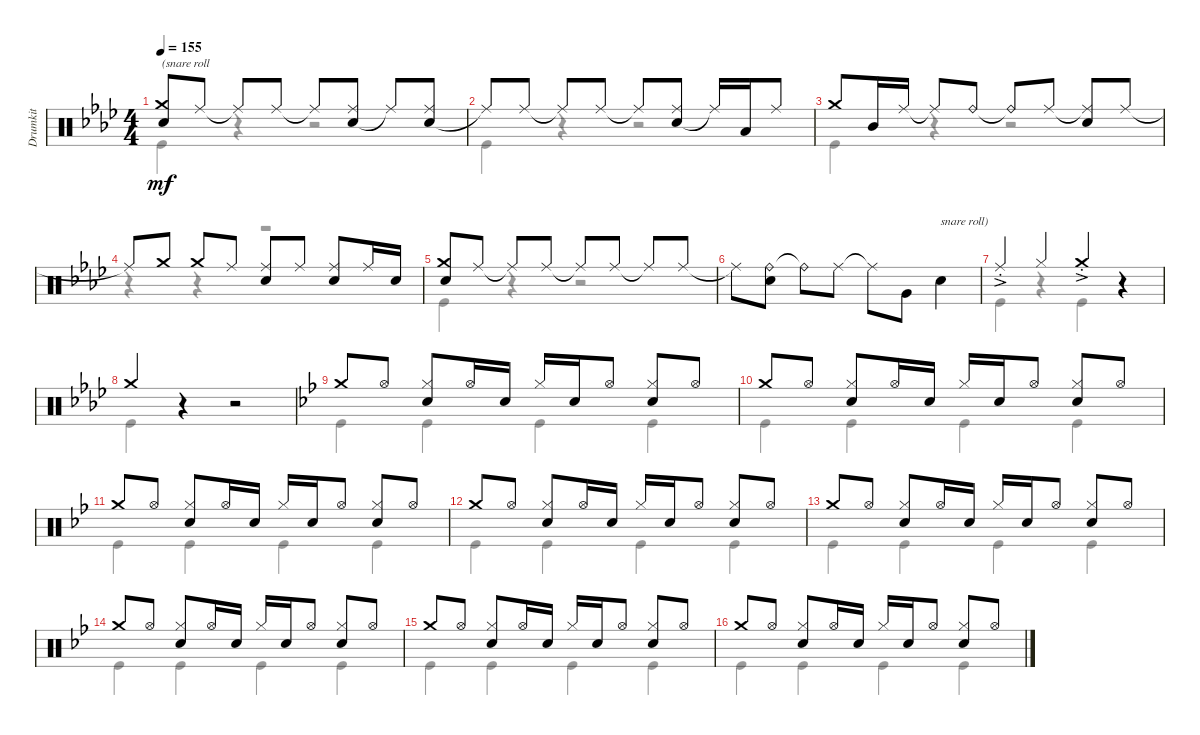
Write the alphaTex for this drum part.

\track ("Drumkit" "Drumkit") {instrument percussion}
\staff {score}
\articulation defaults
\voice
\ts (4 4)
\section ("" "")
\tempo 155
\clef neutral
\ks ab
("Crash medium (hit)" "Snare (hit) 2").8{txt "(snare roll" dy mf} "Ride (middle)".8 "Ride (middle)"{t}.8 "Ride (middle)".8 "Ride (middle)"{t}.8 ("Snare (hit) 2" "Ride (middle)").8 "Ride (middle)"{t}.8 ("Snare (hit) 2" "Ride (middle)").8 |
"Ride (middle)"{t}.8 "Ride (middle)".8 "Ride (middle)"{t}.8 "Ride (middle)".8 "Ride (middle)"{t}.8 ("Snare (hit) 2" "Ride (middle)").8 "Ride (middle)"{t}.16 "Low Tom (hit)".16 "Ride (middle)".8 |
"Crash medium (hit)".8 "Mid Tom (hit)".16 "Ride (middle)".16 "Ride (middle)"{t}.8 "Ride (bell)".8 "Ride (bell)"{t}.8 "Ride (middle)".8 ("Ride (middle)"{t} "Snare (hit) 2").8 "Ride (middle)".8 |
"Ride (middle)"{t}.8 "Crash medium (hit)".8 "Crash medium (hit)".8 "Ride (middle)".8 ("Ride (middle)" "Snare (hit) 2").8 "Ride (middle)".8 ("Ride (middle)" "Snare (hit) 2").8 "Ride (middle)".16 "Snare (hit) 2".16 |
("Crash medium (hit)" "Snare (hit) 2").8 "Ride (middle)".8 "Ride (middle)"{t}.8 "Ride (middle)".8 "Ride (middle)"{t}.8 "Ride (middle)".8 "Ride (middle)"{t}.8 "Ride (middle)".8 |
"Ride (middle)"{t}.8 ("Ride (bell)" "Snare (hit) 2").8 "Ride (bell)"{t}.8 "Ride (middle)".8 "Ride (middle)"{t}.8 "Very Low Tom (hit)".8 "Snare (hit) 2".4{txt "snare roll)"} |
"Ride (middle)"{ac st}.4 "Hi-Hat (closed)".4 "Crash medium (hit)"{ac st}.4 r.4 |
"Crash medium (hit)".4 r.4 r.2 |
\ks bb "Crash medium (hit)".8 "Hi-Hat (open)".8
("Hi-Hat (closed)" "Snare (hit) 2").8 "Hi-Hat (open)".16 "Snare (hit) 2".16 "Hi-Hat (closed)".16 "Snare (hit) 2".16 "Hi-Hat (open)".8 ("Hi-Hat (closed)" "Snare (hit) 2").8 "Hi-Hat (open)".8 |
"Crash medium (hit)".8 "Hi-Hat (open)".8 ("Hi-Hat (closed)" "Snare (hit) 2").8 "Hi-Hat (open)".16 "Snare (hit) 2".16 "Hi-Hat (closed)".16 "Snare (hit) 2".16 "Hi-Hat (open)".8 ("Hi-Hat (closed)" "Snare (hit) 2").8 "Hi-Hat (open)".8 |
"Crash medium (hit)".8 "Hi-Hat (open)".8 ("Hi-Hat (closed)" "Snare (hit) 2").8 "Hi-Hat (open)".16 "Snare (hit) 2".16 "Hi-Hat (closed)".16 "Snare (hit) 2".16 "Hi-Hat (open)".8 ("Hi-Hat (closed)" "Snare (hit) 2").8 "Hi-Hat (open)".8 |
"Crash medium (hit)".8 "Hi-Hat (open)".8 ("Hi-Hat (closed)" "Snare (hit) 2").8 "Hi-Hat (open)".16 "Snare (hit) 2".16 "Hi-Hat (closed)".16 "Snare (hit) 2".16 "Hi-Hat (open)".8 ("Hi-Hat (closed)" "Snare (hit) 2").8 "Hi-Hat (open)".8 |
"Crash medium (hit)".8 "Hi-Hat (open)".8 ("Hi-Hat (closed)" "Snare (hit) 2").8 "Hi-Hat (open)".16 "Snare (hit) 2".16 "Hi-Hat (closed)".16 "Snare (hit) 2".16 "Hi-Hat (open)".8 ("Hi-Hat (closed)" "Snare (hit) 2").8 "Hi-Hat (open)".8 |
"Crash medium (hit)".8 "Hi-Hat (open)".8 ("Hi-Hat (closed)" "Snare (hit) 2").8 "Hi-Hat (open)".16 "Snare (hit) 2".16 "Hi-Hat (closed)".16 "Snare (hit) 2".16 "Hi-Hat (open)".8 ("Hi-Hat (closed)" "Snare (hit) 2").8 "Hi-Hat (open)".8 |
"Crash medium (hit)".8 "Hi-Hat (open)".8 ("Hi-Hat (closed)" "Snare (hit) 2").8 "Hi-Hat (open)".16 "Snare (hit) 2".16 "Hi-Hat (closed)".16 "Snare (hit) 2".16 "Hi-Hat (open)".8 ("Hi-Hat (closed)" "Snare (hit) 2").8 "Hi-Hat (open)".8 |
"Crash medium (hit)".8 "Hi-Hat (open)".8 ("Hi-Hat (closed)" "Snare (hit) 2").8 "Hi-Hat (open)".16 "Snare (hit) 2".16 "Hi-Hat (closed)".16 "Snare (hit) 2".16 "Hi-Hat (open)".8 ("Hi-Hat (closed)" "Snare (hit) 2").8 "Hi-Hat (open)".8
\voice
\clef neutral
\ottava regular
\simile none
\ks ab "Kick (hit)".4{dy mf}
r.4 r.2 |
"Kick (hit)".4 r.4 r.2 |
"Kick (hit)".4 r.4 r.2 |
r.4 r.4 r.2 |
"Kick (hit)".4 r.4 r.2 |
|
"Kick (hit)".4 r.4 "Kick (hit)".4 r.4 |
"Kick (hit)".4 r.4 r.2 |
\ks bb "Kick (hit)".4 "Kick (hit)".4 "Kick (hit)".4 "Kick (hit)".4
|
"Kick (hit)".4 "Kick (hit)".4 "Kick (hit)".4 "Kick (hit)".4 |
"Kick (hit)".4 "Kick (hit)".4 "Kick (hit)".4 "Kick (hit)".4 |
"Kick (hit)".4 "Kick (hit)".4 "Kick (hit)".4 "Kick (hit)".4 |
"Kick (hit)".4 "Kick (hit)".4 "Kick (hit)".4 "Kick (hit)".4 |
"Kick (hit)".4 "Kick (hit)".4 "Kick (hit)".4 "Kick (hit)".4 |
"Kick (hit)".4 "Kick (hit)".4 "Kick (hit)".4 "Kick (hit)".4 |
"Kick (hit)".4 "Kick (hit)".4 "Kick (hit)".4 "Kick (hit)".4
